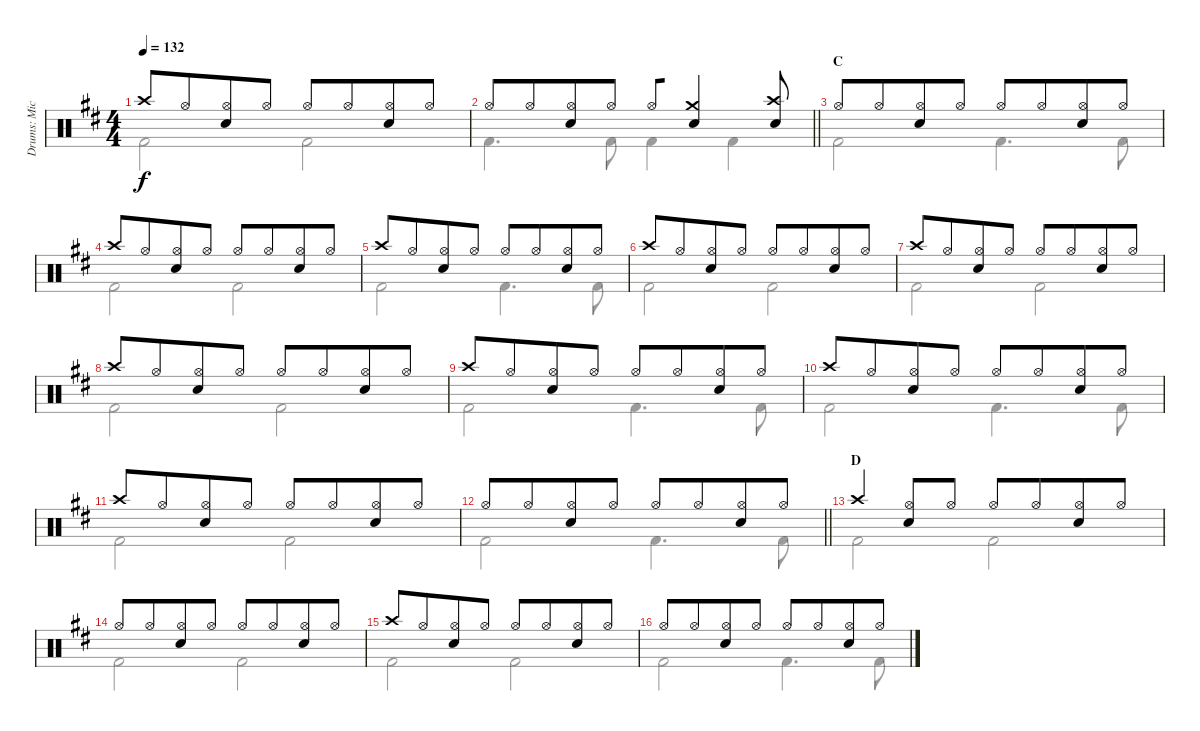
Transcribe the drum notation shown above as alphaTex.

\track ("Drums: Mick" "Drums: Mic") {instrument percussion}
\staff {score}
\articulation defaults
\voice
\ts (4 4)
\tempo 132
\clef neutral
\ks d "Crash high (hit)".8{dy f} "Hi-Hat (open)".8{beam merge}
("Hi-Hat (open)" "Snare (hit) 2").8 "Hi-Hat (open)".8 "Hi-Hat (open)".8 "Hi-Hat (open)".8{beam merge} ("Hi-Hat (open)" "Snare (hit) 2").8 "Hi-Hat (open)".8 |
\barLineRight lightlight "Hi-Hat (open)".8 "Hi-Hat (open)".8{beam merge}
("Hi-Hat (open)" "Snare (hit) 2").8 "Hi-Hat (open)".8 "Hi-Hat (open)".8{beam merge} ("Crash medium (hit)" "Snare (hit) 2").4 ("Crash high (hit)" "Snare (hit) 2").8 |
\section ("" "C")
"Hi-Hat (open)".8 "Hi-Hat (open)".8{beam merge} ("Hi-Hat (open)" "Snare (hit) 2").8 "Hi-Hat (open)".8 "Hi-Hat (open)".8 "Hi-Hat (open)".8{beam merge} ("Hi-Hat (open)" "Snare (hit) 2").8 "Hi-Hat (open)".8 |
"Crash high (hit)".8 "Hi-Hat (open)".8{beam merge} ("Hi-Hat (open)" "Snare (hit) 2").8 "Hi-Hat (open)".8 "Hi-Hat (open)".8 "Hi-Hat (open)".8{beam merge} ("Hi-Hat (open)" "Snare (hit) 2").8 "Hi-Hat (open)".8 |
"Crash high (hit)".8 "Hi-Hat (open)".8{beam merge} ("Hi-Hat (open)" "Snare (hit) 2").8 "Hi-Hat (open)".8 "Hi-Hat (open)".8 "Hi-Hat (open)".8{beam merge} ("Hi-Hat (open)" "Snare (hit) 2").8 "Hi-Hat (open)".8 |
"Crash high (hit)".8 "Hi-Hat (open)".8{beam merge} ("Hi-Hat (open)" "Snare (hit) 2").8 "Hi-Hat (open)".8 "Hi-Hat (open)".8 "Hi-Hat (open)".8{beam merge} ("Hi-Hat (open)" "Snare (hit) 2").8 "Hi-Hat (open)".8 |
"Crash high (hit)".8 "Hi-Hat (open)".8{beam merge} ("Hi-Hat (open)" "Snare (hit) 2").8 "Hi-Hat (open)".8 "Hi-Hat (open)".8 "Hi-Hat (open)".8{beam merge} ("Hi-Hat (open)" "Snare (hit) 2").8 "Hi-Hat (open)".8 |
"Crash high (hit)".8 "Hi-Hat (open)".8{beam merge} ("Hi-Hat (open)" "Snare (hit) 2").8 "Hi-Hat (open)".8 "Hi-Hat (open)".8 "Hi-Hat (open)".8{beam merge} ("Hi-Hat (open)" "Snare (hit) 2").8 "Hi-Hat (open)".8 |
"Crash high (hit)".8 "Hi-Hat (open)".8{beam merge} ("Hi-Hat (open)" "Snare (hit) 2").8 "Hi-Hat (open)".8 "Hi-Hat (open)".8 "Hi-Hat (open)".8{beam merge} ("Hi-Hat (open)" "Snare (hit) 2").8 "Hi-Hat (open)".8 |
"Crash high (hit)".8 "Hi-Hat (open)".8{beam merge} ("Hi-Hat (open)" "Snare (hit) 2").8 "Hi-Hat (open)".8 "Hi-Hat (open)".8 "Hi-Hat (open)".8{beam merge} ("Hi-Hat (open)" "Snare (hit) 2").8 "Hi-Hat (open)".8 |
"Crash high (hit)".8 "Hi-Hat (open)".8{beam merge} ("Hi-Hat (open)" "Snare (hit) 2").8 "Hi-Hat (open)".8 "Hi-Hat (open)".8 "Hi-Hat (open)".8{beam merge} ("Hi-Hat (open)" "Snare (hit) 2").8 "Hi-Hat (open)".8 |
\barLineRight lightlight "Hi-Hat (open)".8 "Hi-Hat (open)".8{beam merge}
("Hi-Hat (open)" "Snare (hit) 2").8 "Hi-Hat (open)".8 "Hi-Hat (open)".8 "Hi-Hat (open)".8{beam merge} ("Hi-Hat (open)" "Snare (hit) 2").8 "Hi-Hat (open)".8 |
\section ("" "D")
"Crash high (hit)".4 ("Hi-Hat (open)" "Snare (hit) 2").8 "Hi-Hat (open)".8 "Hi-Hat (open)".8 "Hi-Hat (open)".8{beam merge} ("Hi-Hat (open)" "Snare (hit) 2").8 "Hi-Hat (open)".8 |
"Hi-Hat (open)".8 "Hi-Hat (open)".8{beam merge} ("Hi-Hat (open)" "Snare (hit) 2").8 "Hi-Hat (open)".8 "Hi-Hat (open)".8 "Hi-Hat (open)".8{beam merge} ("Hi-Hat (open)" "Snare (hit) 2").8 "Hi-Hat (open)".8 |
"Crash high (hit)".8 "Hi-Hat (open)".8{beam merge} ("Hi-Hat (open)" "Snare (hit) 2").8 "Hi-Hat (open)".8 "Hi-Hat (open)".8 "Hi-Hat (open)".8{beam merge} ("Hi-Hat (open)" "Snare (hit) 2").8 "Hi-Hat (open)".8 |
"Hi-Hat (open)".8 "Hi-Hat (open)".8{beam merge} ("Hi-Hat (open)" "Snare (hit) 2").8 "Hi-Hat (open)".8 "Hi-Hat (open)".8 "Hi-Hat (open)".8{beam merge} ("Hi-Hat (open)" "Snare (hit) 2").8 "Hi-Hat (open)".8
\voice
\clef neutral
\ottava regular
\simile none
\ks d "Kick (hit) 2".2{dy f} "Kick (hit) 2".2
|
\barLineRight lightlight "Kick (hit) 2".4{d} "Kick (hit) 2".8 "Kick (hit) 2".4 "Kick (hit) 2".4
|
"Kick (hit) 2".2 "Kick (hit) 2".4{d} "Kick (hit) 2".8 |
"Kick (hit) 2".2 "Kick (hit) 2".2 |
"Kick (hit) 2".2 "Kick (hit) 2".4{d} "Kick (hit) 2".8 |
"Kick (hit) 2".2 "Kick (hit) 2".2 |
"Kick (hit) 2".2 "Kick (hit) 2".2 |
"Kick (hit) 2".2 "Kick (hit) 2".2 |
"Kick (hit) 2".2 "Kick (hit) 2".4{d} "Kick (hit) 2".8 |
"Kick (hit) 2".2 "Kick (hit) 2".4{d} "Kick (hit) 2".8 |
"Kick (hit) 2".2 "Kick (hit) 2".2 |
\barLineRight lightlight "Kick (hit) 2".2 "Kick (hit) 2".4{d} "Kick (hit) 2".8
|
"Kick (hit) 2".2 "Kick (hit) 2".2 |
"Kick (hit) 2".2 "Kick (hit) 2".2 |
"Kick (hit) 2".2 "Kick (hit) 2".2 |
"Kick (hit) 2".2 "Kick (hit) 2".4{d} "Kick (hit) 2".8
